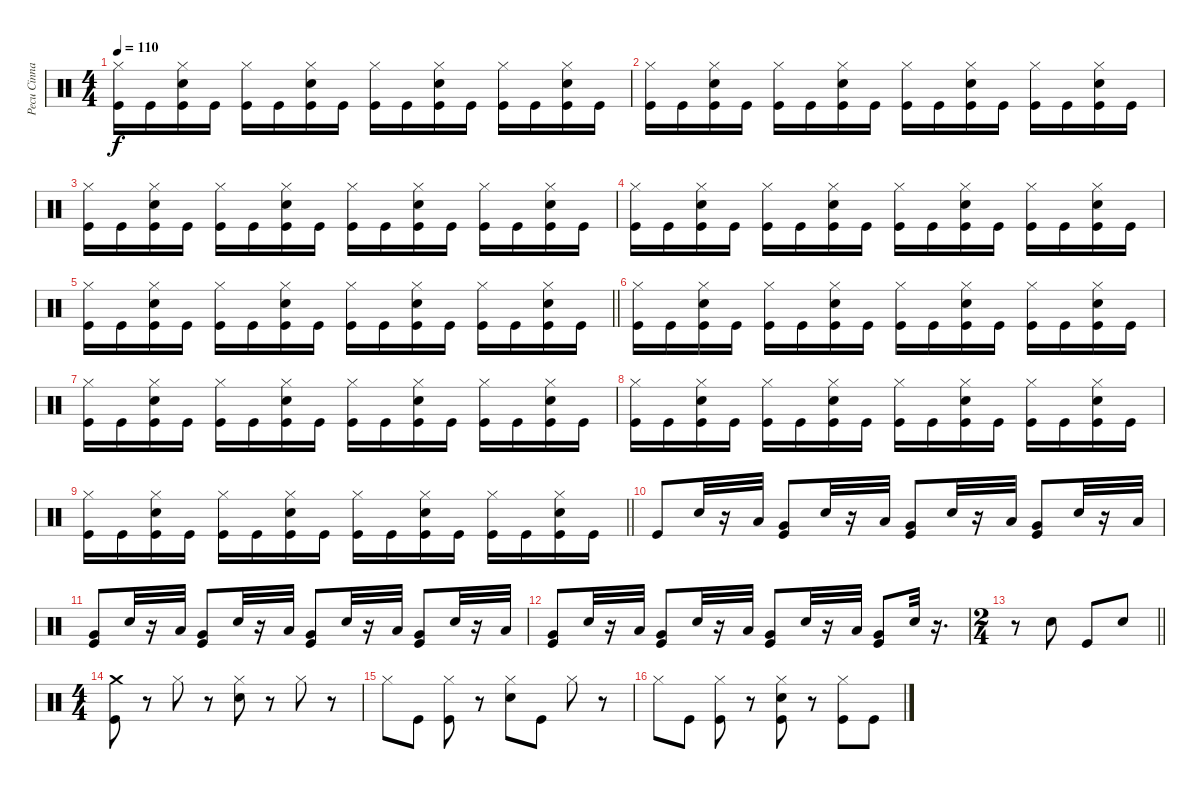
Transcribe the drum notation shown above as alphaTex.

\track ("Pecu Cinnari" "Pecu Cinna") {instrument percussion}
\staff {score}
\articulation defaults
\ts (4 4)
\tempo 110
\clef neutral
\ks c
("Hi-Hat (closed)" "Kick (hit)").16{dy f} "Kick (hit)".16 ("Hi-Hat (closed)" "Snare (hit) 2" "Kick (hit)").16 "Kick (hit)".16 ("Hi-Hat (closed)" "Kick (hit)").16 "Kick (hit)".16 ("Hi-Hat (closed)" "Snare (hit) 2" "Kick (hit)").16 "Kick (hit)".16 ("Hi-Hat (closed)" "Kick (hit)").16 "Kick (hit)".16 ("Hi-Hat (closed)" "Snare (hit) 2" "Kick (hit)").16 "Kick (hit)".16 ("Hi-Hat (closed)" "Kick (hit)").16 "Kick (hit)".16 ("Hi-Hat (closed)" "Snare (hit) 2" "Kick (hit)").16 "Kick (hit)".16 |
("Hi-Hat (closed)" "Kick (hit)").16 "Kick (hit)".16 ("Hi-Hat (closed)" "Snare (hit) 2" "Kick (hit)").16 "Kick (hit)".16 ("Hi-Hat (closed)" "Kick (hit)").16 "Kick (hit)".16 ("Hi-Hat (closed)" "Snare (hit) 2" "Kick (hit)").16 "Kick (hit)".16 ("Hi-Hat (closed)" "Kick (hit)").16 "Kick (hit)".16 ("Hi-Hat (closed)" "Snare (hit) 2" "Kick (hit)").16 "Kick (hit)".16 ("Hi-Hat (closed)" "Kick (hit)").16 "Kick (hit)".16 ("Hi-Hat (closed)" "Snare (hit) 2" "Kick (hit)").16 "Kick (hit)".16 |
("Hi-Hat (closed)" "Kick (hit)").16 "Kick (hit)".16 ("Hi-Hat (closed)" "Snare (hit) 2" "Kick (hit)").16 "Kick (hit)".16 ("Hi-Hat (closed)" "Kick (hit)").16 "Kick (hit)".16 ("Hi-Hat (closed)" "Snare (hit) 2" "Kick (hit)").16 "Kick (hit)".16 ("Hi-Hat (closed)" "Kick (hit)").16 "Kick (hit)".16 ("Hi-Hat (closed)" "Snare (hit) 2" "Kick (hit)").16 "Kick (hit)".16 ("Hi-Hat (closed)" "Kick (hit)").16 "Kick (hit)".16 ("Hi-Hat (closed)" "Snare (hit) 2" "Kick (hit)").16 "Kick (hit)".16 |
("Hi-Hat (closed)" "Kick (hit)").16 "Kick (hit)".16 ("Hi-Hat (closed)" "Snare (hit) 2" "Kick (hit)").16 "Kick (hit)".16 ("Hi-Hat (closed)" "Kick (hit)").16 "Kick (hit)".16 ("Hi-Hat (closed)" "Snare (hit) 2" "Kick (hit)").16 "Kick (hit)".16 ("Hi-Hat (closed)" "Kick (hit)").16 "Kick (hit)".16 ("Hi-Hat (closed)" "Snare (hit) 2" "Kick (hit)").16 "Kick (hit)".16 ("Hi-Hat (closed)" "Kick (hit)").16 "Kick (hit)".16 ("Hi-Hat (closed)" "Snare (hit) 2" "Kick (hit)").16 "Kick (hit)".16 |
\barLineRight lightlight
("Hi-Hat (closed)" "Kick (hit)").16 "Kick (hit)".16 ("Hi-Hat (closed)" "Snare (hit) 2" "Kick (hit)").16 "Kick (hit)".16 ("Hi-Hat (closed)" "Kick (hit)").16 "Kick (hit)".16 ("Hi-Hat (closed)" "Snare (hit) 2" "Kick (hit)").16 "Kick (hit)".16 ("Hi-Hat (closed)" "Kick (hit)").16 "Kick (hit)".16 ("Hi-Hat (closed)" "Snare (hit) 2" "Kick (hit)").16 "Kick (hit)".16 ("Hi-Hat (closed)" "Kick (hit)").16 "Kick (hit)".16 ("Hi-Hat (closed)" "Snare (hit) 2" "Kick (hit)").16 "Kick (hit)".16 |
\section ("" "")
("Hi-Hat (closed)" "Kick (hit)").16 "Kick (hit)".16 ("Hi-Hat (closed)" "Snare (hit) 2" "Kick (hit)").16 "Kick (hit)".16 ("Hi-Hat (closed)" "Kick (hit)").16 "Kick (hit)".16 ("Hi-Hat (closed)" "Snare (hit) 2" "Kick (hit)").16 "Kick (hit)".16 ("Hi-Hat (closed)" "Kick (hit)").16 "Kick (hit)".16 ("Hi-Hat (closed)" "Snare (hit) 2" "Kick (hit)").16 "Kick (hit)".16 ("Hi-Hat (closed)" "Kick (hit)").16 "Kick (hit)".16 ("Hi-Hat (closed)" "Snare (hit) 2" "Kick (hit)").16 "Kick (hit)".16 |
("Hi-Hat (closed)" "Kick (hit)").16 "Kick (hit)".16 ("Hi-Hat (closed)" "Snare (hit) 2" "Kick (hit)").16 "Kick (hit)".16 ("Hi-Hat (closed)" "Kick (hit)").16 "Kick (hit)".16 ("Hi-Hat (closed)" "Snare (hit) 2" "Kick (hit)").16 "Kick (hit)".16 ("Hi-Hat (closed)" "Kick (hit)").16 "Kick (hit)".16 ("Hi-Hat (closed)" "Snare (hit) 2" "Kick (hit)").16 "Kick (hit)".16 ("Hi-Hat (closed)" "Kick (hit)").16 "Kick (hit)".16 ("Hi-Hat (closed)" "Snare (hit) 2" "Kick (hit)").16 "Kick (hit)".16 |
("Hi-Hat (closed)" "Kick (hit)").16 "Kick (hit)".16 ("Hi-Hat (closed)" "Snare (hit) 2" "Kick (hit)").16 "Kick (hit)".16 ("Hi-Hat (closed)" "Kick (hit)").16 "Kick (hit)".16 ("Hi-Hat (closed)" "Snare (hit) 2" "Kick (hit)").16 "Kick (hit)".16 ("Hi-Hat (closed)" "Kick (hit)").16 "Kick (hit)".16 ("Hi-Hat (closed)" "Snare (hit) 2" "Kick (hit)").16 "Kick (hit)".16 ("Hi-Hat (closed)" "Kick (hit)").16 "Kick (hit)".16 ("Hi-Hat (closed)" "Snare (hit) 2" "Kick (hit)").16 "Kick (hit)".16 |
\barLineRight lightlight
("Hi-Hat (closed)" "Kick (hit)").16 "Kick (hit)".16 ("Hi-Hat (closed)" "Snare (hit) 2" "Kick (hit)").16 "Kick (hit)".16 ("Hi-Hat (closed)" "Kick (hit)").16 "Kick (hit)".16 ("Hi-Hat (closed)" "Snare (hit) 2" "Kick (hit)").16 "Kick (hit)".16 ("Hi-Hat (closed)" "Kick (hit)").16 "Kick (hit)".16 ("Hi-Hat (closed)" "Snare (hit) 2" "Kick (hit)").16 "Kick (hit)".16 ("Hi-Hat (closed)" "Kick (hit)").16 "Kick (hit)".16 ("Hi-Hat (closed)" "Snare (hit) 2" "Kick (hit)").16 "Kick (hit)".16 |
"Kick (hit)".8 "Snare (hit) 2".32 r.16 "Low Tom (hit)".32 ("Very Low Tom (hit)" "Kick (hit)").8 "Snare (hit) 2".32 r.16 "Low Tom (hit)".32 ("Very Low Tom (hit)" "Kick (hit)").8 "Snare (hit) 2".32 r.16 "Low Tom (hit)".32 ("Very Low Tom (hit)" "Kick (hit)").8 "Snare (hit) 2".32 r.16 "Low Tom (hit)".32 |
("Very Low Tom (hit)" "Kick (hit)").8 "Snare (hit) 2".32 r.16 "Low Tom (hit)".32 ("Very Low Tom (hit)" "Kick (hit)").8 "Snare (hit) 2".32 r.16 "Low Tom (hit)".32 ("Very Low Tom (hit)" "Kick (hit)").8 "Snare (hit) 2".32 r.16 "Low Tom (hit)".32 ("Very Low Tom (hit)" "Kick (hit)").8 "Snare (hit) 2".32 r.16 "Low Tom (hit)".32 |
("Very Low Tom (hit)" "Kick (hit)").8 "Snare (hit) 2".32 r.16 "Low Tom (hit)".32 ("Very Low Tom (hit)" "Kick (hit)").8 "Snare (hit) 2".32 r.16 "Low Tom (hit)".32 ("Very Low Tom (hit)" "Kick (hit)").8 "Snare (hit) 2".32 r.16 "Low Tom (hit)".32 ("Very Low Tom (hit)" "Kick (hit)").8 "Snare (hit) 2".32 r.16{d} |
\ts (2 4)
\barLineRight lightlight
r.8 "Snare (hit) 2".8 "Kick (hit)".8 "Snare (hit) 2".8 |
\ts (4 4)
\section ("" "")
("Crash medium (hit)" "Kick (hit)").8 r.8 "Hi-Hat (closed)".8 r.8 ("Hi-Hat (closed)" "Snare (hit) 2").8 r.8 "Hi-Hat (closed)".8 r.8 |
"Hi-Hat (closed)".8 "Kick (hit)".8 ("Hi-Hat (closed)" "Kick (hit)").8 r.8 ("Hi-Hat (closed)" "Snare (hit) 2").8 "Kick (hit)".8 "Hi-Hat (closed)".8 r.8 |
"Hi-Hat (closed)".8 "Kick (hit)".8 ("Hi-Hat (closed)" "Kick (hit)").8 r.8 ("Hi-Hat (closed)" "Snare (hit) 2" "Kick (hit)").8 r.8 ("Hi-Hat (closed)" "Kick (hit)").8 "Kick (hit)".8
